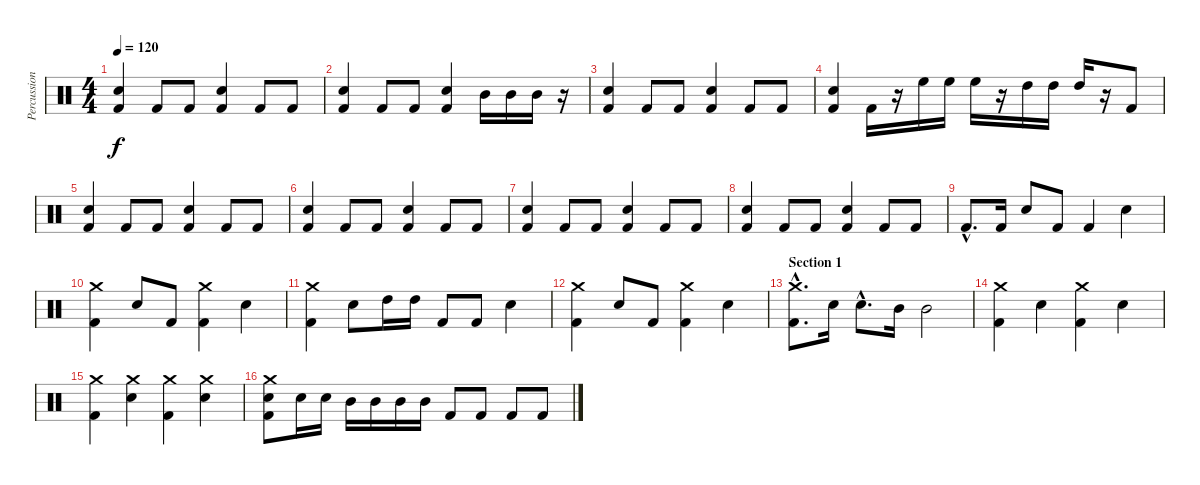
\track ("Percussions" "Percussion") {instrument percussion}
\staff {score}
\articulation defaults
\ts (4 4)
\tempo 120
\clef neutral
\ks c
("Snare (hit) 2" "Kick (hit) 2").4{dy f} "Kick (hit) 2".8 "Kick (hit) 2".8 ("Snare (hit) 2" "Kick (hit) 2").4 "Kick (hit) 2".8 "Kick (hit) 2".8 |
("Snare (hit) 2" "Kick (hit) 2").4 "Kick (hit) 2".8 "Kick (hit) 2".8 ("Snare (hit) 2" "Kick (hit) 2").4 "Mid Tom (hit)".16 "Mid Tom (hit)".16 "Mid Tom (hit)".16 r.16 |
("Snare (hit) 2" "Kick (hit) 2").4 "Kick (hit) 2".8 "Kick (hit) 2".8 ("Snare (hit) 2" "Kick (hit) 2").4 "Kick (hit) 2".8 "Kick (hit) 2".8 |
("Snare (hit) 2" "Kick (hit) 2").4 "Kick (hit) 2".16 r.16 "High Floor Tom (hit)".16 "High Floor Tom (hit)".16 "High Floor Tom (hit)".16 r.16 "High Tom (hit)".16 "High Tom (hit)".16 "High Tom (hit)".16 r.16 "Kick (hit) 2".8 |
("Snare (hit) 2" "Kick (hit) 2").4 "Kick (hit) 2".8 "Kick (hit) 2".8 ("Snare (hit) 2" "Kick (hit) 2").4 "Kick (hit) 2".8 "Kick (hit) 2".8 |
("Snare (hit) 2" "Kick (hit) 2").4 "Kick (hit) 2".8 "Kick (hit) 2".8 ("Snare (hit) 2" "Kick (hit) 2").4 "Kick (hit) 2".8 "Kick (hit) 2".8 |
("Snare (hit) 2" "Kick (hit) 2").4 "Kick (hit) 2".8 "Kick (hit) 2".8 ("Snare (hit) 2" "Kick (hit) 2").4 "Kick (hit) 2".8 "Kick (hit) 2".8 |
("Snare (hit) 2" "Kick (hit) 2").4 "Kick (hit) 2".8 "Kick (hit) 2".8 ("Snare (hit) 2" "Kick (hit) 2").4 "Kick (hit) 2".8 "Kick (hit) 2".8 |
"Kick (hit) 2"{hac}.8{d} "Kick (hit) 2".16 "Snare (hit) 2".8 "Kick (hit) 2".8 "Kick (hit) 2".4 "Snare (hit) 2".4 |
("Crash medium (hit)" "Kick (hit) 2").4 "Snare (hit) 2".8 "Kick (hit) 2".8 ("Crash medium (hit)" "Kick (hit) 2").4 "Snare (hit) 2".4 |
("Crash medium (hit)" "Kick (hit) 2").4 "Snare (hit) 2".8 "High Tom (hit)".16 "High Tom (hit)".16 "Kick (hit) 2".8 "Kick (hit) 2".8 "Snare (hit) 2".4 |
("Crash medium (hit)" "Kick (hit) 2").4 "Snare (hit) 2".8 "Kick (hit) 2".8 ("Crash medium (hit)" "Kick (hit) 2").4 "Snare (hit) 2".4 |
\section ("" "Section 1")
("Crash medium (hit)"{hac} "Kick (hit) 2"{hac}).8{d} "Snare (hit) 2".16 "Snare (hit) 2"{hac}.8{d} "Mid Tom (hit)".16 "Mid Tom (hit)".2 |
("Crash medium (hit)" "Kick (hit) 2").4 "Snare (hit) 2".4 ("Crash medium (hit)" "Kick (hit) 2").4 "Snare (hit) 2".4 |
("Crash medium (hit)" "Kick (hit) 2").4 ("Crash medium (hit)" "Snare (hit) 2").4 ("Crash medium (hit)" "Kick (hit) 2").4 ("Crash medium (hit)" "Snare (hit) 2").4 |
("Crash medium (hit)" "Snare (hit) 2" "Kick (hit) 2").8 "Snare (hit) 2".16 "Snare (hit) 2".16 "Mid Tom (hit)".16 "Mid Tom (hit)".16 "Mid Tom (hit)".16 "Mid Tom (hit)".16 "Kick (hit) 2".8 "Kick (hit) 2".8 "Kick (hit) 2".8 "Kick (hit) 2".8
